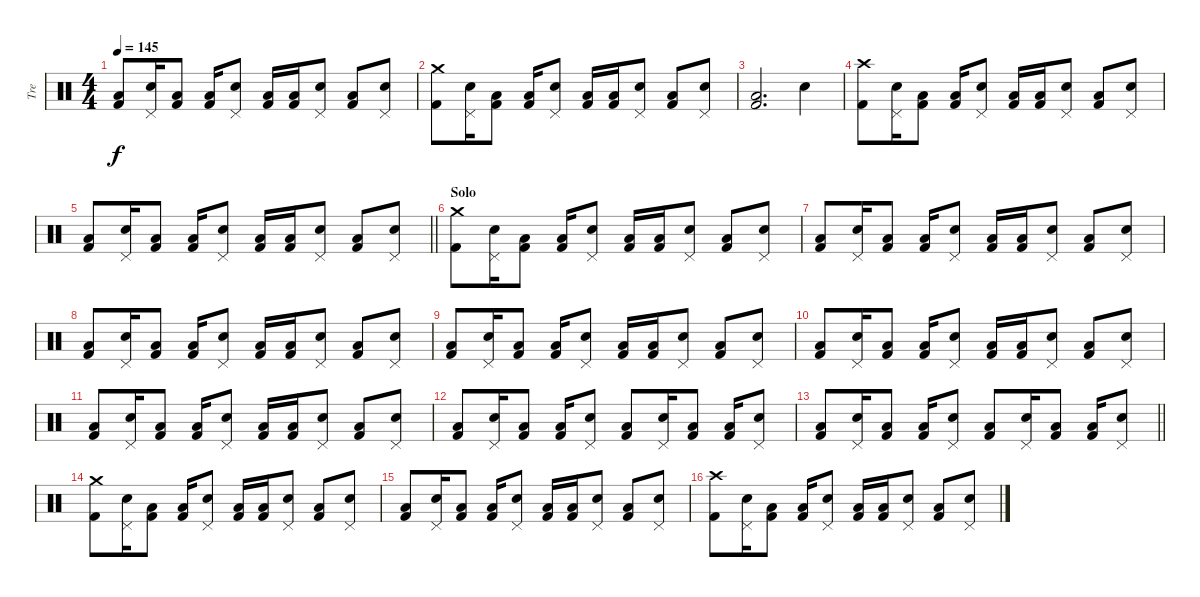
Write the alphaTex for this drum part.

\track ("Tre" "Tre") {instrument percussion}
\staff {score}
\articulation defaults
\ts (4 4)
\tempo 145
\clef neutral
\ks c
("Low Floor Tom (hit)" "Kick (hit) 2").8{dy f} ("Snare (hit) 2" "Pedal Hi-Hat (hit)").16 ("Low Floor Tom (hit)" "Kick (hit) 2").8 ("Low Floor Tom (hit)" "Kick (hit) 2").16 ("Snare (hit) 2" "Pedal Hi-Hat (hit)").8 ("Low Floor Tom (hit)" "Kick (hit) 2").16 ("Low Floor Tom (hit)" "Kick (hit) 2").16 ("Snare (hit) 2" "Pedal Hi-Hat (hit)").8 ("Low Floor Tom (hit)" "Kick (hit) 2").8 ("Snare (hit) 2" "Pedal Hi-Hat (hit)").8 |
("Crash medium (hit)" "Kick (hit) 2").8 ("Snare (hit) 2" "Pedal Hi-Hat (hit)").16 ("Low Floor Tom (hit)" "Kick (hit) 2").8 ("Low Floor Tom (hit)" "Kick (hit) 2").16 ("Snare (hit) 2" "Pedal Hi-Hat (hit)").8 ("Low Floor Tom (hit)" "Kick (hit) 2").16 ("Low Floor Tom (hit)" "Kick (hit) 2").16 ("Snare (hit) 2" "Pedal Hi-Hat (hit)").8 ("Low Floor Tom (hit)" "Kick (hit) 2").8 ("Snare (hit) 2" "Pedal Hi-Hat (hit)").8 |
("Low Floor Tom (hit)" "Kick (hit) 2").2{d} "Snare (hit) 2".4 |
("Crash high (hit)" "Kick (hit) 2").8 ("Snare (hit) 2" "Pedal Hi-Hat (hit)").16 ("Low Floor Tom (hit)" "Kick (hit) 2").8 ("Low Floor Tom (hit)" "Kick (hit) 2").16 ("Snare (hit) 2" "Pedal Hi-Hat (hit)").8 ("Low Floor Tom (hit)" "Kick (hit) 2").16 ("Low Floor Tom (hit)" "Kick (hit) 2").16 ("Snare (hit) 2" "Pedal Hi-Hat (hit)").8 ("Low Floor Tom (hit)" "Kick (hit) 2").8 ("Snare (hit) 2" "Pedal Hi-Hat (hit)").8 |
\barLineRight lightlight
("Low Floor Tom (hit)" "Kick (hit) 2").8 ("Snare (hit) 2" "Pedal Hi-Hat (hit)").16 ("Low Floor Tom (hit)" "Kick (hit) 2").8 ("Low Floor Tom (hit)" "Kick (hit) 2").16 ("Snare (hit) 2" "Pedal Hi-Hat (hit)").8 ("Low Floor Tom (hit)" "Kick (hit) 2").16 ("Low Floor Tom (hit)" "Kick (hit) 2").16 ("Snare (hit) 2" "Pedal Hi-Hat (hit)").8 ("Low Floor Tom (hit)" "Kick (hit) 2").8 ("Snare (hit) 2" "Pedal Hi-Hat (hit)").8 |
\section ("" "Solo")
("Crash medium (hit)" "Kick (hit) 2").8 ("Snare (hit) 2" "Pedal Hi-Hat (hit)").16 ("Low Floor Tom (hit)" "Kick (hit) 2").8 ("Low Floor Tom (hit)" "Kick (hit) 2").16 ("Snare (hit) 2" "Pedal Hi-Hat (hit)").8 ("Low Floor Tom (hit)" "Kick (hit) 2").16 ("Low Floor Tom (hit)" "Kick (hit) 2").16 ("Snare (hit) 2" "Pedal Hi-Hat (hit)").8 ("Low Floor Tom (hit)" "Kick (hit) 2").8 ("Snare (hit) 2" "Pedal Hi-Hat (hit)").8 |
("Low Floor Tom (hit)" "Kick (hit) 2").8 ("Snare (hit) 2" "Pedal Hi-Hat (hit)").16 ("Low Floor Tom (hit)" "Kick (hit) 2").8 ("Low Floor Tom (hit)" "Kick (hit) 2").16 ("Snare (hit) 2" "Pedal Hi-Hat (hit)").8 ("Low Floor Tom (hit)" "Kick (hit) 2").16 ("Low Floor Tom (hit)" "Kick (hit) 2").16 ("Snare (hit) 2" "Pedal Hi-Hat (hit)").8 ("Low Floor Tom (hit)" "Kick (hit) 2").8 ("Snare (hit) 2" "Pedal Hi-Hat (hit)").8 |
("Low Floor Tom (hit)" "Kick (hit) 2").8 ("Snare (hit) 2" "Pedal Hi-Hat (hit)").16 ("Low Floor Tom (hit)" "Kick (hit) 2").8 ("Low Floor Tom (hit)" "Kick (hit) 2").16 ("Snare (hit) 2" "Pedal Hi-Hat (hit)").8 ("Low Floor Tom (hit)" "Kick (hit) 2").16 ("Low Floor Tom (hit)" "Kick (hit) 2").16 ("Snare (hit) 2" "Pedal Hi-Hat (hit)").8 ("Low Floor Tom (hit)" "Kick (hit) 2").8 ("Snare (hit) 2" "Pedal Hi-Hat (hit)").8 |
("Low Floor Tom (hit)" "Kick (hit) 2").8 ("Snare (hit) 2" "Pedal Hi-Hat (hit)").16 ("Low Floor Tom (hit)" "Kick (hit) 2").8 ("Low Floor Tom (hit)" "Kick (hit) 2").16 ("Snare (hit) 2" "Pedal Hi-Hat (hit)").8 ("Low Floor Tom (hit)" "Kick (hit) 2").16 ("Low Floor Tom (hit)" "Kick (hit) 2").16 ("Snare (hit) 2" "Pedal Hi-Hat (hit)").8 ("Low Floor Tom (hit)" "Kick (hit) 2").8 ("Snare (hit) 2" "Pedal Hi-Hat (hit)").8 |
("Low Floor Tom (hit)" "Kick (hit) 2").8 ("Snare (hit) 2" "Pedal Hi-Hat (hit)").16 ("Low Floor Tom (hit)" "Kick (hit) 2").8 ("Low Floor Tom (hit)" "Kick (hit) 2").16 ("Snare (hit) 2" "Pedal Hi-Hat (hit)").8 ("Low Floor Tom (hit)" "Kick (hit) 2").16 ("Low Floor Tom (hit)" "Kick (hit) 2").16 ("Snare (hit) 2" "Pedal Hi-Hat (hit)").8 ("Low Floor Tom (hit)" "Kick (hit) 2").8 ("Snare (hit) 2" "Pedal Hi-Hat (hit)").8 |
("Low Floor Tom (hit)" "Kick (hit) 2").8 ("Snare (hit) 2" "Pedal Hi-Hat (hit)").16 ("Low Floor Tom (hit)" "Kick (hit) 2").8 ("Low Floor Tom (hit)" "Kick (hit) 2").16 ("Snare (hit) 2" "Pedal Hi-Hat (hit)").8 ("Low Floor Tom (hit)" "Kick (hit) 2").16 ("Low Floor Tom (hit)" "Kick (hit) 2").16 ("Snare (hit) 2" "Pedal Hi-Hat (hit)").8 ("Low Floor Tom (hit)" "Kick (hit) 2").8 ("Snare (hit) 2" "Pedal Hi-Hat (hit)").8 |
("Low Floor Tom (hit)" "Kick (hit) 2").8 ("Snare (hit) 2" "Pedal Hi-Hat (hit)").16 ("Low Floor Tom (hit)" "Kick (hit) 2").8 ("Low Floor Tom (hit)" "Kick (hit) 2").16 ("Snare (hit) 2" "Pedal Hi-Hat (hit)").8 ("Low Floor Tom (hit)" "Kick (hit) 2").8 ("Snare (hit) 2" "Pedal Hi-Hat (hit)").16 ("Low Floor Tom (hit)" "Kick (hit) 2").8 ("Low Floor Tom (hit)" "Kick (hit) 2").16 ("Snare (hit) 2" "Pedal Hi-Hat (hit)").8 |
\barLineRight lightlight
("Low Floor Tom (hit)" "Kick (hit) 2").8 ("Snare (hit) 2" "Pedal Hi-Hat (hit)").16 ("Low Floor Tom (hit)" "Kick (hit) 2").8 ("Low Floor Tom (hit)" "Kick (hit) 2").16 ("Snare (hit) 2" "Pedal Hi-Hat (hit)").8 ("Low Floor Tom (hit)" "Kick (hit) 2").8 ("Snare (hit) 2" "Pedal Hi-Hat (hit)").16 ("Low Floor Tom (hit)" "Kick (hit) 2").8 ("Low Floor Tom (hit)" "Kick (hit) 2").16 ("Snare (hit) 2" "Pedal Hi-Hat (hit)").8 |
("Crash medium (hit)" "Kick (hit) 2").8 ("Snare (hit) 2" "Pedal Hi-Hat (hit)").16 ("Low Floor Tom (hit)" "Kick (hit) 2").8 ("Low Floor Tom (hit)" "Kick (hit) 2").16 ("Snare (hit) 2" "Pedal Hi-Hat (hit)").8 ("Low Floor Tom (hit)" "Kick (hit) 2").16 ("Low Floor Tom (hit)" "Kick (hit) 2").16 ("Snare (hit) 2" "Pedal Hi-Hat (hit)").8 ("Low Floor Tom (hit)" "Kick (hit) 2").8 ("Snare (hit) 2" "Pedal Hi-Hat (hit)").8 |
("Low Floor Tom (hit)" "Kick (hit) 2").8 ("Snare (hit) 2" "Pedal Hi-Hat (hit)").16 ("Low Floor Tom (hit)" "Kick (hit) 2").8 ("Low Floor Tom (hit)" "Kick (hit) 2").16 ("Snare (hit) 2" "Pedal Hi-Hat (hit)").8 ("Low Floor Tom (hit)" "Kick (hit) 2").16 ("Low Floor Tom (hit)" "Kick (hit) 2").16 ("Snare (hit) 2" "Pedal Hi-Hat (hit)").8 ("Low Floor Tom (hit)" "Kick (hit) 2").8 ("Snare (hit) 2" "Pedal Hi-Hat (hit)").8 |
("Crash high (hit)" "Kick (hit) 2").8 ("Snare (hit) 2" "Pedal Hi-Hat (hit)").16 ("Low Floor Tom (hit)" "Kick (hit) 2").8 ("Low Floor Tom (hit)" "Kick (hit) 2").16 ("Snare (hit) 2" "Pedal Hi-Hat (hit)").8 ("Low Floor Tom (hit)" "Kick (hit) 2").16 ("Low Floor Tom (hit)" "Kick (hit) 2").16 ("Snare (hit) 2" "Pedal Hi-Hat (hit)").8 ("Low Floor Tom (hit)" "Kick (hit) 2").8 ("Snare (hit) 2" "Pedal Hi-Hat (hit)").8
